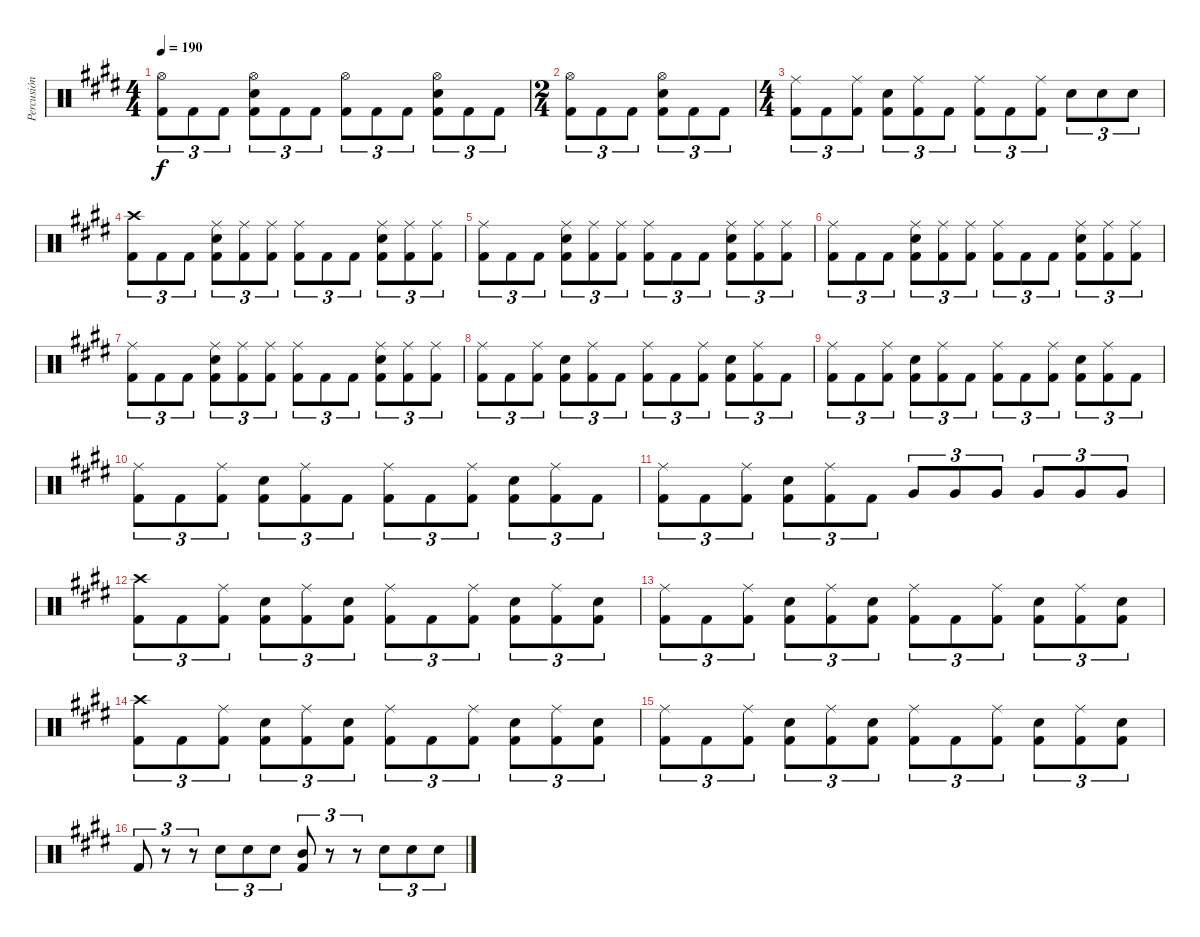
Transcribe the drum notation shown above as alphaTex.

\track ("Percusión" "Percusión") {instrument percussion}
\staff {score}
\articulation defaults
\ts (4 4)
\tempo 190
\clef neutral
\ks e
("Hi-Hat (open)" "Kick (hit) 2").8{tu (3 2) dy f} "Kick (hit) 2".8{tu (3 2)} "Kick (hit) 2".8{tu (3 2)} ("Hi-Hat (open)" "Electric Snare (hit)" "Kick (hit) 2").8{tu (3 2)} "Kick (hit) 2".8{tu (3 2)} "Kick (hit) 2".8{tu (3 2)} ("Hi-Hat (open)" "Kick (hit) 2").8{tu (3 2)} "Kick (hit) 2".8{tu (3 2)} "Kick (hit) 2".8{tu (3 2)} ("Hi-Hat (open)" "Electric Snare (hit)" "Kick (hit) 2").8{tu (3 2)} "Kick (hit) 2".8{tu (3 2)} "Kick (hit) 2".8{tu (3 2)} |
\ts (2 4)
("Hi-Hat (open)" "Kick (hit) 2").8{tu (3 2)} "Kick (hit) 2".8{tu (3 2)} "Kick (hit) 2".8{tu (3 2)} ("Hi-Hat (open)" "Electric Snare (hit)" "Kick (hit) 2").8{tu (3 2)} "Kick (hit) 2".8{tu (3 2)} "Kick (hit) 2".8{tu (3 2)} |
\ts (4 4)
("Ride (middle)" "Kick (hit) 2").8{tu (3 2)} "Kick (hit) 2".8{tu (3 2)} ("Ride (middle)" "Kick (hit) 2").8{tu (3 2)} ("Electric Snare (hit)" "Kick (hit) 2").8{tu (3 2)} ("Ride (middle)" "Kick (hit) 2").8{tu (3 2)} "Kick (hit) 2".8{tu (3 2)} ("Ride (middle)" "Kick (hit) 2").8{tu (3 2)} "Kick (hit) 2".8{tu (3 2)} ("Ride (middle)" "Kick (hit) 2").8{tu (3 2)} "Electric Snare (hit)".8{tu (3 2)} "Electric Snare (hit)".8{tu (3 2)} "Electric Snare (hit)".8{tu (3 2)} |
("Crash high (hit)" "Kick (hit) 2").8{tu (3 2)} "Kick (hit) 2".8{tu (3 2)} "Kick (hit) 2".8{tu (3 2)} ("Ride (middle)" "Electric Snare (hit)" "Kick (hit) 2").8{tu (3 2)} ("Ride (middle)" "Kick (hit) 2").8{tu (3 2)} ("Ride (middle)" "Kick (hit) 2").8{tu (3 2)} ("Ride (middle)" "Kick (hit) 2").8{tu (3 2)} "Kick (hit) 2".8{tu (3 2)} "Kick (hit) 2".8{tu (3 2)} ("Ride (middle)" "Electric Snare (hit)" "Kick (hit) 2").8{tu (3 2)} ("Ride (middle)" "Kick (hit) 2").8{tu (3 2)} ("Ride (middle)" "Kick (hit) 2").8{tu (3 2)} |
("Ride (middle)" "Kick (hit) 2").8{tu (3 2)} "Kick (hit) 2".8{tu (3 2)} "Kick (hit) 2".8{tu (3 2)} ("Ride (middle)" "Electric Snare (hit)" "Kick (hit) 2").8{tu (3 2)} ("Ride (middle)" "Kick (hit) 2").8{tu (3 2)} ("Ride (middle)" "Kick (hit) 2").8{tu (3 2)} ("Ride (middle)" "Kick (hit) 2").8{tu (3 2)} "Kick (hit) 2".8{tu (3 2)} "Kick (hit) 2".8{tu (3 2)} ("Ride (middle)" "Electric Snare (hit)" "Kick (hit) 2").8{tu (3 2)} ("Ride (middle)" "Kick (hit) 2").8{tu (3 2)} ("Ride (middle)" "Kick (hit) 2").8{tu (3 2)} |
("Ride (middle)" "Kick (hit) 2").8{tu (3 2)} "Kick (hit) 2".8{tu (3 2)} "Kick (hit) 2".8{tu (3 2)} ("Ride (middle)" "Electric Snare (hit)" "Kick (hit) 2").8{tu (3 2)} ("Ride (middle)" "Kick (hit) 2").8{tu (3 2)} ("Ride (middle)" "Kick (hit) 2").8{tu (3 2)} ("Ride (middle)" "Kick (hit) 2").8{tu (3 2)} "Kick (hit) 2".8{tu (3 2)} "Kick (hit) 2".8{tu (3 2)} ("Ride (middle)" "Electric Snare (hit)" "Kick (hit) 2").8{tu (3 2)} ("Ride (middle)" "Kick (hit) 2").8{tu (3 2)} ("Ride (middle)" "Kick (hit) 2").8{tu (3 2)} |
("Ride (middle)" "Kick (hit) 2").8{tu (3 2)} "Kick (hit) 2".8{tu (3 2)} "Kick (hit) 2".8{tu (3 2)} ("Ride (middle)" "Electric Snare (hit)" "Kick (hit) 2").8{tu (3 2)} ("Ride (middle)" "Kick (hit) 2").8{tu (3 2)} ("Ride (middle)" "Kick (hit) 2").8{tu (3 2)} ("Ride (middle)" "Kick (hit) 2").8{tu (3 2)} "Kick (hit) 2".8{tu (3 2)} "Kick (hit) 2".8{tu (3 2)} ("Ride (middle)" "Electric Snare (hit)" "Kick (hit) 2").8{tu (3 2)} ("Ride (middle)" "Kick (hit) 2").8{tu (3 2)} ("Ride (middle)" "Kick (hit) 2").8{tu (3 2)} |
("Ride (middle)" "Kick (hit) 2").8{tu (3 2)} "Kick (hit) 2".8{tu (3 2)} ("Ride (middle)" "Kick (hit) 2").8{tu (3 2)} ("Electric Snare (hit)" "Kick (hit) 2").8{tu (3 2)} ("Ride (middle)" "Kick (hit) 2").8{tu (3 2)} "Kick (hit) 2".8{tu (3 2)} ("Ride (middle)" "Kick (hit) 2").8{tu (3 2)} "Kick (hit) 2".8{tu (3 2)} ("Ride (middle)" "Kick (hit) 2").8{tu (3 2)} ("Electric Snare (hit)" "Kick (hit) 2").8{tu (3 2)} ("Ride (middle)" "Kick (hit) 2").8{tu (3 2)} "Kick (hit) 2".8{tu (3 2)} |
("Ride (middle)" "Kick (hit) 2").8{tu (3 2)} "Kick (hit) 2".8{tu (3 2)} ("Ride (middle)" "Kick (hit) 2").8{tu (3 2)} ("Electric Snare (hit)" "Kick (hit) 2").8{tu (3 2)} ("Ride (middle)" "Kick (hit) 2").8{tu (3 2)} "Kick (hit) 2".8{tu (3 2)} ("Ride (middle)" "Kick (hit) 2").8{tu (3 2)} "Kick (hit) 2".8{tu (3 2)} ("Ride (middle)" "Kick (hit) 2").8{tu (3 2)} ("Electric Snare (hit)" "Kick (hit) 2").8{tu (3 2)} ("Ride (middle)" "Kick (hit) 2").8{tu (3 2)} "Kick (hit) 2".8{tu (3 2)} |
("Ride (middle)" "Kick (hit) 2").8{tu (3 2)} "Kick (hit) 2".8{tu (3 2)} ("Ride (middle)" "Kick (hit) 2").8{tu (3 2)} ("Electric Snare (hit)" "Kick (hit) 2").8{tu (3 2)} ("Ride (middle)" "Kick (hit) 2").8{tu (3 2)} "Kick (hit) 2".8{tu (3 2)} ("Ride (middle)" "Kick (hit) 2").8{tu (3 2)} "Kick (hit) 2".8{tu (3 2)} ("Ride (middle)" "Kick (hit) 2").8{tu (3 2)} ("Electric Snare (hit)" "Kick (hit) 2").8{tu (3 2)} ("Ride (middle)" "Kick (hit) 2").8{tu (3 2)} "Kick (hit) 2".8{tu (3 2)} |
("Ride (middle)" "Kick (hit) 2").8{tu (3 2)} "Kick (hit) 2".8{tu (3 2)} ("Ride (middle)" "Kick (hit) 2").8{tu (3 2)} ("Electric Snare (hit)" "Kick (hit) 2").8{tu (3 2)} ("Ride (middle)" "Kick (hit) 2").8{tu (3 2)} "Kick (hit) 2".8{tu (3 2)} "Very Low Tom (hit)".8{tu (3 2)} "Very Low Tom (hit)".8{tu (3 2)} "Very Low Tom (hit)".8{tu (3 2)} "Very Low Tom (hit)".8{tu (3 2)} "Very Low Tom (hit)".8{tu (3 2)} "Very Low Tom (hit)".8{tu (3 2)} |
("Crash high (hit)" "Kick (hit) 2").8{tu (3 2)} "Kick (hit) 2".8{tu (3 2)} ("Ride (middle)" "Kick (hit) 2").8{tu (3 2)} ("Electric Snare (hit)" "Kick (hit) 2").8{tu (3 2)} ("Ride (middle)" "Kick (hit) 2").8{tu (3 2)} ("Electric Snare (hit)" "Kick (hit) 2").8{tu (3 2)} ("Ride (middle)" "Kick (hit) 2").8{tu (3 2)} "Kick (hit) 2".8{tu (3 2)} ("Ride (middle)" "Kick (hit) 2").8{tu (3 2)} ("Electric Snare (hit)" "Kick (hit) 2").8{tu (3 2)} ("Ride (middle)" "Kick (hit) 2").8{tu (3 2)} ("Electric Snare (hit)" "Kick (hit) 2").8{tu (3 2)} |
("Ride (middle)" "Kick (hit) 2").8{tu (3 2)} "Kick (hit) 2".8{tu (3 2)} ("Ride (middle)" "Kick (hit) 2").8{tu (3 2)} ("Electric Snare (hit)" "Kick (hit) 2").8{tu (3 2)} ("Ride (middle)" "Kick (hit) 2").8{tu (3 2)} ("Electric Snare (hit)" "Kick (hit) 2").8{tu (3 2)} ("Ride (middle)" "Kick (hit) 2").8{tu (3 2)} "Kick (hit) 2".8{tu (3 2)} ("Ride (middle)" "Kick (hit) 2").8{tu (3 2)} ("Electric Snare (hit)" "Kick (hit) 2").8{tu (3 2)} ("Ride (middle)" "Kick (hit) 2").8{tu (3 2)} ("Electric Snare (hit)" "Kick (hit) 2").8{tu (3 2)} |
("Crash high (hit)" "Kick (hit) 2").8{tu (3 2)} "Kick (hit) 2".8{tu (3 2)} ("Ride (middle)" "Kick (hit) 2").8{tu (3 2)} ("Electric Snare (hit)" "Kick (hit) 2").8{tu (3 2)} ("Ride (middle)" "Kick (hit) 2").8{tu (3 2)} ("Electric Snare (hit)" "Kick (hit) 2").8{tu (3 2)} ("Ride (middle)" "Kick (hit) 2").8{tu (3 2)} "Kick (hit) 2".8{tu (3 2)} ("Ride (middle)" "Kick (hit) 2").8{tu (3 2)} ("Electric Snare (hit)" "Kick (hit) 2").8{tu (3 2)} ("Ride (middle)" "Kick (hit) 2").8{tu (3 2)} ("Electric Snare (hit)" "Kick (hit) 2").8{tu (3 2)} |
("Ride (middle)" "Kick (hit) 2").8{tu (3 2)} "Kick (hit) 2".8{tu (3 2)} ("Ride (middle)" "Kick (hit) 2").8{tu (3 2)} ("Electric Snare (hit)" "Kick (hit) 2").8{tu (3 2)} ("Ride (middle)" "Kick (hit) 2").8{tu (3 2)} ("Electric Snare (hit)" "Kick (hit) 2").8{tu (3 2)} ("Ride (middle)" "Kick (hit) 2").8{tu (3 2)} "Kick (hit) 2".8{tu (3 2)} ("Ride (middle)" "Kick (hit) 2").8{tu (3 2)} ("Electric Snare (hit)" "Kick (hit) 2").8{tu (3 2)} ("Ride (middle)" "Kick (hit) 2").8{tu (3 2)} ("Electric Snare (hit)" "Kick (hit) 2").8{tu (3 2)} |
"Kick (hit) 2".8{tu (3 2)} r.8{tu (3 2)} r.8{tu (3 2)} "Electric Snare (hit)".8{tu (3 2)} "Electric Snare (hit)".8{tu (3 2)} "Electric Snare (hit)".8{tu (3 2)} ("Mid Tom (hit)" "Kick (hit) 2").8{tu (3 2)} r.8{tu (3 2)} r.8{tu (3 2)} "Electric Snare (hit)".8{tu (3 2)} "Electric Snare (hit)".8{tu (3 2)} "Electric Snare (hit)".8{tu (3 2)}
